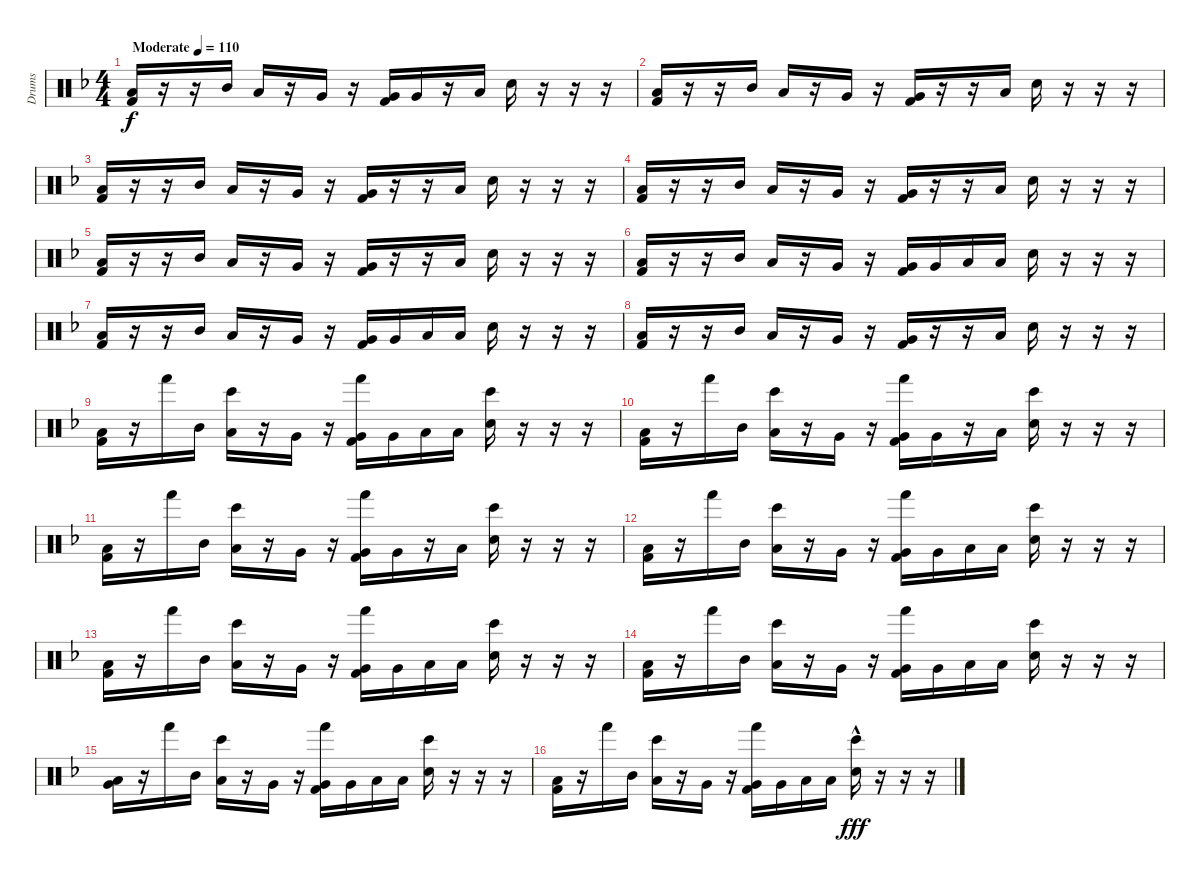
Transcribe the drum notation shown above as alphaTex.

\track ("Drums" "Drums") {instrument percussion}
\staff {score}
\articulation defaults
\ts (4 4)
\tempo (110 "Moderate")
\clef neutral
\ks dminor
("Low Floor Tom (hit)" "Kick (hit) 2").16{dy f} r.16 r.16 "Mid Tom (hit)".16 "Low Tom (hit)".16 r.16 "Very Low Tom (hit)".16 r.16 ("Very Low Tom (hit)" "Kick (hit) 2").16 "Very Low Tom (hit)".16 r.16 "Low Floor Tom (hit)".16 "Snare (hit) 2".16 r.16 r.16 r.16 |
("Low Floor Tom (hit)" "Kick (hit) 2").16 r.16 r.16 "Mid Tom (hit)".16 "Low Tom (hit)".16 r.16 "Very Low Tom (hit)".16 r.16 ("Very Low Tom (hit)" "Kick (hit) 2").16 r.16 r.16 "Low Floor Tom (hit)".16 "Snare (hit) 2".16 r.16 r.16 r.16 |
("Low Floor Tom (hit)" "Kick (hit) 2").16 r.16 r.16 "Mid Tom (hit)".16 "Low Tom (hit)".16 r.16 "Very Low Tom (hit)".16 r.16 ("Very Low Tom (hit)" "Kick (hit) 2").16 r.16 r.16 "Low Floor Tom (hit)".16 "Snare (hit) 2".16 r.16 r.16 r.16 |
("Low Floor Tom (hit)" "Kick (hit) 2").16 r.16 r.16 "Mid Tom (hit)".16 "Low Tom (hit)".16 r.16 "Very Low Tom (hit)".16 r.16 ("Very Low Tom (hit)" "Kick (hit) 2").16 r.16 r.16 "Low Floor Tom (hit)".16 "Snare (hit) 2".16 r.16 r.16 r.16 |
("Low Floor Tom (hit)" "Kick (hit) 2").16 r.16 r.16 "Mid Tom (hit)".16 "Low Tom (hit)".16 r.16 "Very Low Tom (hit)".16 r.16 ("Very Low Tom (hit)" "Kick (hit) 2").16 r.16 r.16 "Low Floor Tom (hit)".16 "Snare (hit) 2".16 r.16 r.16 r.16 |
("Low Floor Tom (hit)" "Kick (hit) 2").16 r.16 r.16 "Mid Tom (hit)".16 "Low Tom (hit)".16 r.16 "Very Low Tom (hit)".16 r.16 ("Very Low Tom (hit)" "Kick (hit) 2").16 "Very Low Tom (hit)".16 "Low Floor Tom (hit)".16 "Low Floor Tom (hit)".16 "Snare (hit) 2".16 r.16 r.16 r.16 |
("Low Floor Tom (hit)" "Kick (hit) 2").16 r.16 r.16 "Mid Tom (hit)".16 "Low Tom (hit)".16 r.16 "Very Low Tom (hit)".16 r.16 ("Very Low Tom (hit)" "Kick (hit) 2").16 "Very Low Tom (hit)".16 "Low Floor Tom (hit)".16 "Low Floor Tom (hit)".16 "Snare (hit) 2".16 r.16 r.16 r.16 |
("Low Floor Tom (hit)" "Kick (hit) 2").16 r.16 r.16 "Mid Tom (hit)".16 "Low Tom (hit)".16 r.16 "Very Low Tom (hit)".16 r.16 ("Very Low Tom (hit)" "Kick (hit) 2").16 r.16 r.16 "Low Floor Tom (hit)".16 "Snare (hit) 2".16 r.16 r.16 r.16 |
("Low Floor Tom (hit)" "Kick (hit) 2").16 r.16 "Hand (hit)".16 "Mid Tom (hit)".16 ("Bongo High (hit)" "Low Tom (hit)").16 r.16 "Very Low Tom (hit)".16 r.16 ("Hand (hit)" "Very Low Tom (hit)" "Kick (hit) 2").16 "Very Low Tom (hit)".16 "Low Floor Tom (hit)".16 "Low Floor Tom (hit)".16 ("Bongo High (hit)" "Snare (hit) 2").16 r.16 r.16 r.16 |
("Low Floor Tom (hit)" "Kick (hit) 2").16 r.16 "Hand (hit)".16 "Mid Tom (hit)".16 ("Bongo High (hit)" "Low Tom (hit)").16 r.16 "Very Low Tom (hit)".16 r.16 ("Hand (hit)" "Very Low Tom (hit)" "Kick (hit) 2").16 "Very Low Tom (hit)".16 r.16 "Low Floor Tom (hit)".16 ("Bongo High (hit)" "Snare (hit) 2").16 r.16 r.16 r.16 |
("Low Floor Tom (hit)" "Kick (hit) 2").16 r.16 "Hand (hit)".16 "Mid Tom (hit)".16 ("Bongo High (hit)" "Low Tom (hit)").16 r.16 "Very Low Tom (hit)".16 r.16 ("Hand (hit)" "Very Low Tom (hit)" "Kick (hit) 2").16 "Very Low Tom (hit)".16 r.16 "Low Floor Tom (hit)".16 ("Bongo High (hit)" "Snare (hit) 2").16 r.16 r.16 r.16 |
("Low Floor Tom (hit)" "Kick (hit) 2").16 r.16 "Hand (hit)".16 "Mid Tom (hit)".16 ("Bongo High (hit)" "Low Tom (hit)").16 r.16 "Very Low Tom (hit)".16 r.16 ("Hand (hit)" "Very Low Tom (hit)" "Kick (hit) 2").16 "Very Low Tom (hit)".16 "Low Floor Tom (hit)".16 "Low Floor Tom (hit)".16 ("Bongo High (hit)" "Snare (hit) 2").16 r.16 r.16 r.16 |
("Low Floor Tom (hit)" "Kick (hit) 2").16 r.16 "Hand (hit)".16 "Mid Tom (hit)".16 ("Bongo High (hit)" "Low Tom (hit)").16 r.16 "Very Low Tom (hit)".16 r.16 ("Hand (hit)" "Very Low Tom (hit)" "Kick (hit) 2").16 "Very Low Tom (hit)".16 "Low Floor Tom (hit)".16 "Low Floor Tom (hit)".16 ("Bongo High (hit)" "Snare (hit) 2").16 r.16 r.16 r.16 |
("Low Floor Tom (hit)" "Kick (hit) 2").16 r.16 "Hand (hit)".16 "Mid Tom (hit)".16 ("Bongo High (hit)" "Low Tom (hit)").16 r.16 "Very Low Tom (hit)".16 r.16 ("Hand (hit)" "Very Low Tom (hit)" "Kick (hit) 2").16 "Very Low Tom (hit)".16 "Low Floor Tom (hit)".16 "Low Floor Tom (hit)".16 ("Bongo High (hit)" "Snare (hit) 2").16 r.16 r.16 r.16 |
("Low Floor Tom (hit)" "Very Low Tom (hit)").16 r.16 "Hand (hit)".16 "Mid Tom (hit)".16 ("Bongo High (hit)" "Low Tom (hit)").16 r.16 "Very Low Tom (hit)".16 r.16 ("Hand (hit)" "Very Low Tom (hit)" "Kick (hit) 2").16 "Very Low Tom (hit)".16 "Low Floor Tom (hit)".16 "Low Floor Tom (hit)".16 ("Bongo High (hit)" "Snare (hit) 2").16 r.16 r.16 r.16 |
("Low Floor Tom (hit)" "Kick (hit) 2").16 r.16 "Hand (hit)".16 "Mid Tom (hit)".16 ("Bongo High (hit)" "Low Tom (hit)").16 r.16 "Very Low Tom (hit)".16 r.16 ("Hand (hit)" "Very Low Tom (hit)" "Kick (hit) 2").16 "Very Low Tom (hit)".16 "Low Floor Tom (hit)".16 "Low Floor Tom (hit)".16 ("Bongo High (hit)" "Snare (hit) 2"{hac}).16{dy fff} r.16 r.16 r.16
